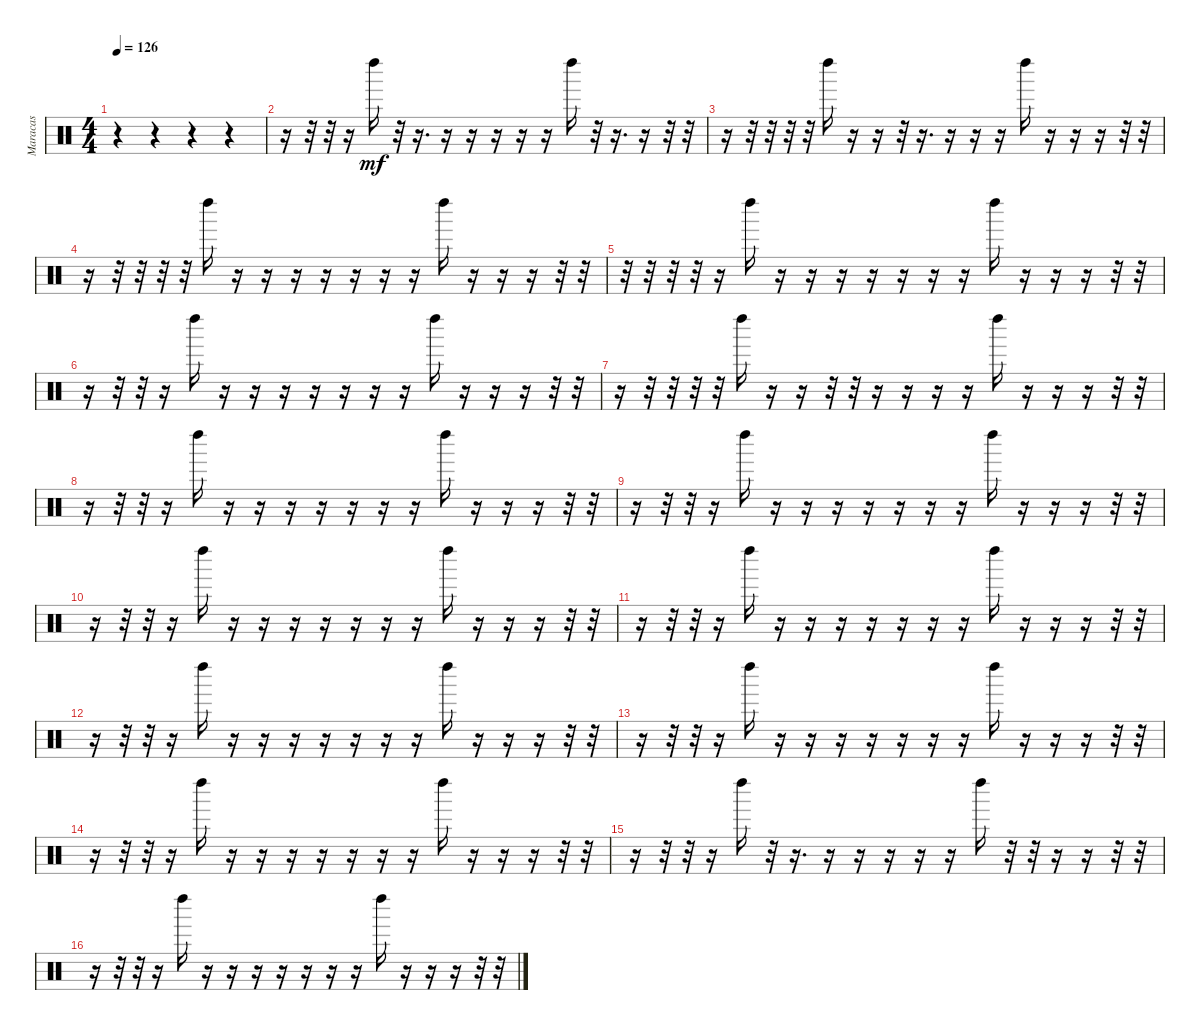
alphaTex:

\track ("Maracas" "Maracas") {instrument percussion}
\staff {score}
\articulation defaults
\ts (4 4)
\tempo 126
\clef neutral
\ks c
r.4{dy mf} r.4 r.4 r.4 |
r.16 r.32 r.32 r.16 "Left Maraca (hit)".16 r.32 r.16{d} r.16 r.16 r.16 r.16 r.16 "Left Maraca (hit)".16 r.32 r.16{d} r.16 r.32 r.32 |
r.16 r.32 r.32 r.32 r.32 "Left Maraca (hit)".16 r.16 r.16 r.32 r.16{d} r.16 r.16 r.16 "Left Maraca (hit)".16 r.16 r.16 r.16 r.32 r.32 |
r.16 r.32 r.32 r.32 r.32 "Left Maraca (hit)".16 r.16 r.16 r.16 r.16 r.16 r.16 r.16 "Left Maraca (hit)".16 r.16 r.16 r.16 r.32 r.32 |
r.32 r.32 r.32 r.32 r.16 "Left Maraca (hit)".16 r.16 r.16 r.16 r.16 r.16 r.16 r.16 "Left Maraca (hit)".16 r.16 r.16 r.16 r.32 r.32 |
r.16 r.32 r.32 r.16 "Left Maraca (hit)".16 r.16 r.16 r.16 r.16 r.16 r.16 r.16 "Left Maraca (hit)".16 r.16 r.16 r.16 r.32 r.32 |
r.16 r.32 r.32 r.32 r.32 "Left Maraca (hit)".16 r.16 r.16 r.32 r.32 r.16 r.16 r.16 r.16 "Left Maraca (hit)".16 r.16 r.16 r.16 r.32 r.32 |
r.16 r.32 r.32 r.16 "Left Maraca (hit)".16 r.16 r.16 r.16 r.16 r.16 r.16 r.16 "Left Maraca (hit)".16 r.16 r.16 r.16 r.32 r.32 |
r.16 r.32 r.32 r.16 "Left Maraca (hit)".16 r.16 r.16 r.16 r.16 r.16 r.16 r.16 "Left Maraca (hit)".16 r.16 r.16 r.16 r.32 r.32 |
r.16 r.32 r.32 r.16 "Left Maraca (hit)".16 r.16 r.16 r.16 r.16 r.16 r.16 r.16 "Left Maraca (hit)".16 r.16 r.16 r.16 r.32 r.32 |
r.16 r.32 r.32 r.16 "Left Maraca (hit)".16 r.16 r.16 r.16 r.16 r.16 r.16 r.16 "Left Maraca (hit)".16 r.16 r.16 r.16 r.32 r.32 |
r.16 r.32 r.32 r.16 "Left Maraca (hit)".16 r.16 r.16 r.16 r.16 r.16 r.16 r.16 "Left Maraca (hit)".16 r.16 r.16 r.16 r.32 r.32 |
r.16 r.32 r.32 r.16 "Left Maraca (hit)".16 r.16 r.16 r.16 r.16 r.16 r.16 r.16 "Left Maraca (hit)".16 r.16 r.16 r.16 r.32 r.32 |
r.16 r.32 r.32 r.16 "Left Maraca (hit)".16 r.16 r.16 r.16 r.16 r.16 r.16 r.16 "Left Maraca (hit)".16 r.16 r.16 r.16 r.32 r.32 |
r.16 r.32 r.32 r.16 "Left Maraca (hit)".16 r.32 r.16{d} r.16 r.16 r.16 r.16 r.16 "Left Maraca (hit)".16 r.32 r.32 r.16 r.16 r.32 r.32 |
r.16 r.32 r.32 r.16 "Left Maraca (hit)".16 r.16 r.16 r.16 r.16 r.16 r.16 r.16 "Left Maraca (hit)".16 r.16 r.16 r.16 r.32 r.32
